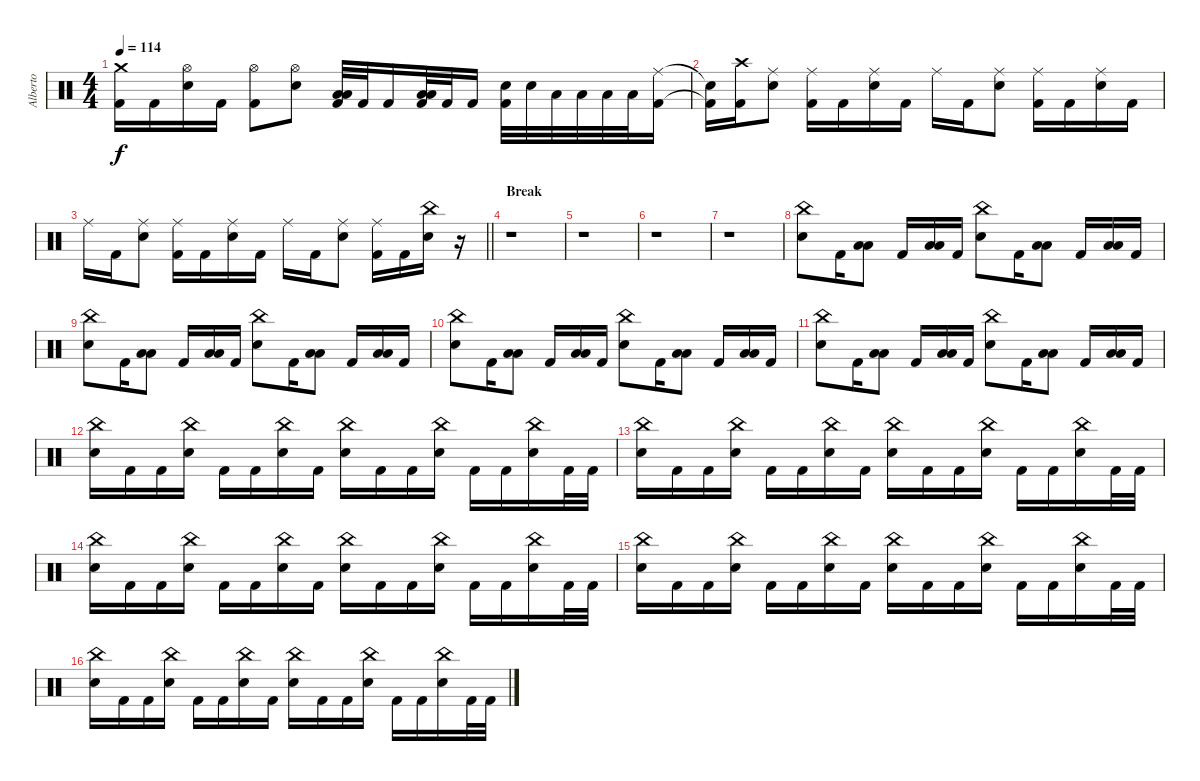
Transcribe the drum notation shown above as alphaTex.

\track ("Alberto" "Alberto") {instrument percussion}
\staff
\articulation defaults
\ts (4 4)
\tempo 114
\clef neutral
\ks c
("Crash medium (hit)"{t} "Kick (hit) 2"{t}).16{dy f} "Kick (hit) 2".16 ("Hi-Hat (open)" "Electric Snare (hit)").16 "Kick (hit) 2".16 ("Hi-Hat (open)" "Kick (hit) 2").8 ("Hi-Hat (open)" "Electric Snare (hit)").8 ("Low Tom (hit)" "Low Floor Tom (hit)" "Kick (hit) 2").32 "Kick (hit) 2".32 "Kick (hit) 2".16 ("Low Tom (hit)" "Low Floor Tom (hit)" "Kick (hit) 2").32 "Kick (hit) 2".32 "Kick (hit) 2".16 ("Electric Snare (hit)" "Kick (hit) 2").32 "Electric Snare (hit)".32 "Low Tom (hit)".32 "Low Tom (hit)".32 "Low Floor Tom (hit)".32 "Low Floor Tom (hit)".32 ("Ride (middle)" "Kick (hit) 2").16 |
("Snare (hit)"{t} "Kick (hit) 2"{t}).16 ("Crash high (hit)" "Kick (hit) 2").16 ("Ride (middle)" "Electric Snare (hit)").8 ("Ride (middle)" "Kick (hit) 2").16 "Kick (hit) 2".16 ("Ride (middle)" "Electric Snare (hit)").16 "Kick (hit) 2".16 "Ride (middle)".16 "Kick (hit) 2".16 ("Ride (middle)" "Electric Snare (hit)").8 ("Ride (middle)" "Kick (hit) 2").16 "Kick (hit) 2".16 ("Ride (middle)" "Electric Snare (hit)").16 "Kick (hit) 2".16 |
\barLineRight lightlight "Ride (middle)".16 "Kick (hit) 2".16
("Ride (middle)" "Electric Snare (hit)").8 ("Ride (middle)" "Kick (hit) 2").16 "Kick (hit) 2".16 ("Ride (middle)" "Electric Snare (hit)").16 "Kick (hit) 2".16 "Ride (middle)".16 "Kick (hit) 2".16 ("Ride (middle)" "Electric Snare (hit)").8 ("Ride (middle)" "Kick (hit) 2").16 "Kick (hit) 2".16 ("China (hit)" "Electric Snare (hit)").16 r.16 |
\section ("" "Break")
r.1 |
r.1 |
r.1 |
r.1 |
("China (hit)" "Electric Snare (hit)").8 "Kick (hit) 2".16 ("Low Tom (hit)" "Low Floor Tom (hit)").8 "Kick (hit) 2".16 ("Low Floor Tom (hit)" "Low Floor Tom (hit)").16 "Kick (hit) 2".16 ("China (hit)" "Electric Snare (hit)").8 "Kick (hit) 2".16 ("Low Tom (hit)" "Low Floor Tom (hit)").8 "Kick (hit) 2".16 ("Low Floor Tom (hit)" "Low Floor Tom (hit)").16 "Kick (hit) 2".16 |
("China (hit)" "Electric Snare (hit)").8 "Kick (hit) 2".16 ("Low Tom (hit)" "Low Floor Tom (hit)").8 "Kick (hit) 2".16 ("Low Floor Tom (hit)" "Low Floor Tom (hit)").16 "Kick (hit) 2".16 ("China (hit)" "Electric Snare (hit)").8 "Kick (hit) 2".16 ("Low Tom (hit)" "Low Floor Tom (hit)").8 "Kick (hit) 2".16 ("Low Floor Tom (hit)" "Low Floor Tom (hit)").16 "Kick (hit) 2".16 |
("China (hit)" "Electric Snare (hit)").8 "Kick (hit) 2".16 ("Low Tom (hit)" "Low Floor Tom (hit)").8 "Kick (hit) 2".16 ("Low Floor Tom (hit)" "Low Floor Tom (hit)").16 "Kick (hit) 2".16 ("China (hit)" "Electric Snare (hit)").8 "Kick (hit) 2".16 ("Low Tom (hit)" "Low Floor Tom (hit)").8 "Kick (hit) 2".16 ("Low Floor Tom (hit)" "Low Floor Tom (hit)").16 "Kick (hit) 2".16 |
("China (hit)" "Electric Snare (hit)").8 "Kick (hit) 2".16 ("Low Tom (hit)" "Low Floor Tom (hit)").8 "Kick (hit) 2".16 ("Low Floor Tom (hit)" "Low Floor Tom (hit)").16 "Kick (hit) 2".16 ("China (hit)" "Electric Snare (hit)").8 "Kick (hit) 2".16 ("Low Tom (hit)" "Low Floor Tom (hit)").8 "Kick (hit) 2".16 ("Low Floor Tom (hit)" "Low Floor Tom (hit)").16 "Kick (hit) 2".16 |
("China (hit)" "Electric Snare (hit)").16 "Kick (hit) 2".16 "Kick (hit) 2".16 ("China (hit)" "Electric Snare (hit)").16 "Kick (hit) 2".16 "Kick (hit) 2".16 ("China (hit)" "Electric Snare (hit)").16 "Kick (hit) 2".16 ("China (hit)" "Electric Snare (hit)").16 "Kick (hit) 2".16 "Kick (hit) 2".16 ("China (hit)" "Electric Snare (hit)").16 "Kick (hit) 2".16 "Kick (hit) 2".16 ("China (hit)" "Electric Snare (hit)").16 "Kick (hit) 2".32 "Kick (hit) 2".32 |
("China (hit)" "Electric Snare (hit)").16 "Kick (hit) 2".16 "Kick (hit) 2".16 ("China (hit)" "Electric Snare (hit)").16 "Kick (hit) 2".16 "Kick (hit) 2".16 ("China (hit)" "Electric Snare (hit)").16 "Kick (hit) 2".16 ("China (hit)" "Electric Snare (hit)").16 "Kick (hit) 2".16 "Kick (hit) 2".16 ("China (hit)" "Electric Snare (hit)").16 "Kick (hit) 2".16 "Kick (hit) 2".16 ("China (hit)" "Electric Snare (hit)").16 "Kick (hit) 2".32 "Kick (hit) 2".32 |
("China (hit)" "Electric Snare (hit)").16 "Kick (hit) 2".16 "Kick (hit) 2".16 ("China (hit)" "Electric Snare (hit)").16 "Kick (hit) 2".16 "Kick (hit) 2".16 ("China (hit)" "Electric Snare (hit)").16 "Kick (hit) 2".16 ("China (hit)" "Electric Snare (hit)").16 "Kick (hit) 2".16 "Kick (hit) 2".16 ("China (hit)" "Electric Snare (hit)").16 "Kick (hit) 2".16 "Kick (hit) 2".16 ("China (hit)" "Electric Snare (hit)").16 "Kick (hit) 2".32 "Kick (hit) 2".32 |
("China (hit)" "Electric Snare (hit)").16 "Kick (hit) 2".16 "Kick (hit) 2".16 ("China (hit)" "Electric Snare (hit)").16 "Kick (hit) 2".16 "Kick (hit) 2".16 ("China (hit)" "Electric Snare (hit)").16 "Kick (hit) 2".16 ("China (hit)" "Electric Snare (hit)").16 "Kick (hit) 2".16 "Kick (hit) 2".16 ("China (hit)" "Electric Snare (hit)").16 "Kick (hit) 2".16 "Kick (hit) 2".16 ("China (hit)" "Electric Snare (hit)").16 "Kick (hit) 2".32 "Kick (hit) 2".32 |
("China (hit)" "Electric Snare (hit)").16 "Kick (hit) 2".16 "Kick (hit) 2".16 ("China (hit)" "Electric Snare (hit)").16 "Kick (hit) 2".16 "Kick (hit) 2".16 ("China (hit)" "Electric Snare (hit)").16 "Kick (hit) 2".16 ("China (hit)" "Electric Snare (hit)").16 "Kick (hit) 2".16 "Kick (hit) 2".16 ("China (hit)" "Electric Snare (hit)").16 "Kick (hit) 2".16 "Kick (hit) 2".16 ("China (hit)" "Electric Snare (hit)").16 "Kick (hit) 2".32 "Kick (hit) 2".32
